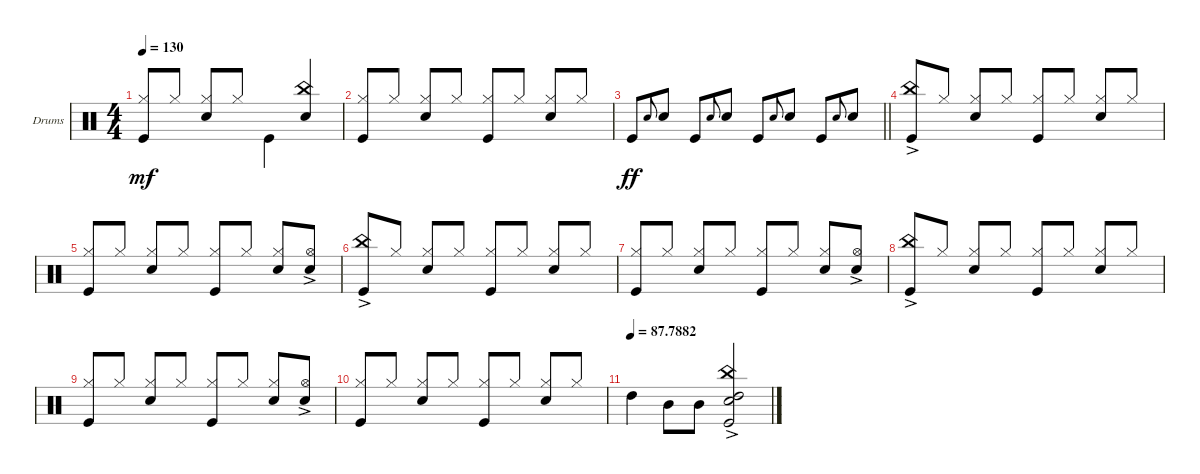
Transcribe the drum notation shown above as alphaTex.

\defaultSystemsLayout 4
\bracketExtendMode groupsimilarinstruments
\firstSystemTrackNameOrientation horizontal
\otherSystemsTrackNameOrientation horizontal
\track ("Drumkit" "Drums") {instrument percussion}
\staff {score}
\articulation defaults
\ts (4 4)
\tempo 130
\clef neutral
\scale
0.333333
\ks c
("Hi-Hat (closed)" "Kick (hit)").8{dy mf beam invert} "Hi-Hat (closed)".8 ("Hi-Hat (closed)" "Snare (hit) 2").8{beam invert} "Hi-Hat (closed)".8 "Kick (hit)".4 ("Snare (hit) 2" "China (hit)").4{beam invert} |
\scale
0.333333 ("Kick (hit)" "Hi-Hat (closed)").8{beam invert} "Hi-Hat (closed)".8 ("Hi-Hat (closed)" "Snare (hit) 2").8{beam invert} "Hi-Hat (closed)".8 ("Hi-Hat (closed)" "Kick (hit)").8{beam invert} "Hi-Hat (closed)".8 ("Hi-Hat (closed)" "Snare (hit) 2").8{beam invert} "Hi-Hat (closed)".8 |
\scale
0.333333
\barLineRight lightlight "Kick (hit)".8{dy ff} "Snare (hit) 2".8{gr onbeat} "Snare (hit) 2".8 "Kick (hit)".8 "Snare (hit) 2".8{gr onbeat} "Snare (hit) 2".8 "Kick (hit)".8 "Snare (hit) 2".8{gr onbeat} "Snare (hit) 2".8 "Kick (hit)".8 "Snare (hit) 2".8{gr onbeat} "Snare (hit) 2".8
|
\scale
0.333333 ("China (hit)"{ac} "Kick (hit)").8 "Hi-Hat (closed)".8 ("Hi-Hat (closed)" "Snare (hit) 2").8{beam invert} "Hi-Hat (closed)".8 ("Hi-Hat (closed)" "Kick (hit)").8{beam invert} "Hi-Hat (closed)".8 ("Hi-Hat (closed)" "Snare (hit) 2").8{beam invert} "Hi-Hat (closed)".8 |
\scale
0.333333 ("Hi-Hat (closed)" "Kick (hit)").8{beam invert} "Hi-Hat (closed)".8 ("Hi-Hat (closed)" "Snare (hit) 2").8{beam invert} "Hi-Hat (closed)".8 ("Hi-Hat (closed)" "Kick (hit)").8{beam invert} "Hi-Hat (closed)".8 ("Hi-Hat (closed)" "Snare (hit) 2").8{beam invert} ("Hi-Hat (open)"{ac} "Snare (hit) 2").8 |
\scale
0.333333 ("China (hit)"{ac} "Kick (hit)").8 "Hi-Hat (closed)".8 ("Hi-Hat (closed)" "Snare (hit) 2").8{beam invert} "Hi-Hat (closed)".8 ("Hi-Hat (closed)" "Kick (hit)").8{beam invert} "Hi-Hat (closed)".8 ("Hi-Hat (closed)" "Snare (hit) 2").8{beam invert} "Hi-Hat (closed)".8 |
("Hi-Hat (closed)" "Kick (hit)").8{beam invert} "Hi-Hat (closed)".8 ("Hi-Hat (closed)" "Snare (hit) 2").8{beam invert} "Hi-Hat (closed)".8 ("Hi-Hat (closed)" "Kick (hit)").8{beam invert} "Hi-Hat (closed)".8 ("Hi-Hat (closed)" "Snare (hit) 2").8{beam invert} ("Hi-Hat (open)"{ac} "Snare (hit) 2").8 |
("China (hit)"{ac} "Kick (hit)").8 "Hi-Hat (closed)".8 ("Hi-Hat (closed)" "Snare (hit) 2").8{beam invert} "Hi-Hat (closed)".8 ("Hi-Hat (closed)" "Kick (hit)").8{beam invert} "Hi-Hat (closed)".8 ("Hi-Hat (closed)" "Snare (hit) 2").8{beam invert} "Hi-Hat (closed)".8 |
("Hi-Hat (closed)" "Kick (hit)").8{beam invert} "Hi-Hat (closed)".8 ("Hi-Hat (closed)" "Snare (hit) 2").8{beam invert} "Hi-Hat (closed)".8 ("Hi-Hat (closed)" "Kick (hit)").8{beam invert} "Hi-Hat (closed)".8 ("Hi-Hat (closed)" "Snare (hit) 2").8{beam invert} ("Hi-Hat (open)"{ac} "Snare (hit) 2").8 |
("Hi-Hat (closed)" "Kick (hit)").8{beam invert} "Hi-Hat (closed)".8 ("Hi-Hat (closed)" "Snare (hit) 2").8{beam invert} "Hi-Hat (closed)".8 ("Hi-Hat (closed)" "Kick (hit)").8{beam invert} "Hi-Hat (closed)".8 ("Hi-Hat (closed)" "Snare (hit) 2").8{beam invert} "Hi-Hat (closed)".8 |
\tempo (87.7882)
"High Tom (hit)".4 "Mid Tom (hit)".8 "Mid Tom (hit)".8 ("Kick (hit)" "Snare (hit) 2" "High Tom (hit)" "China (hit)"{ac}).2
